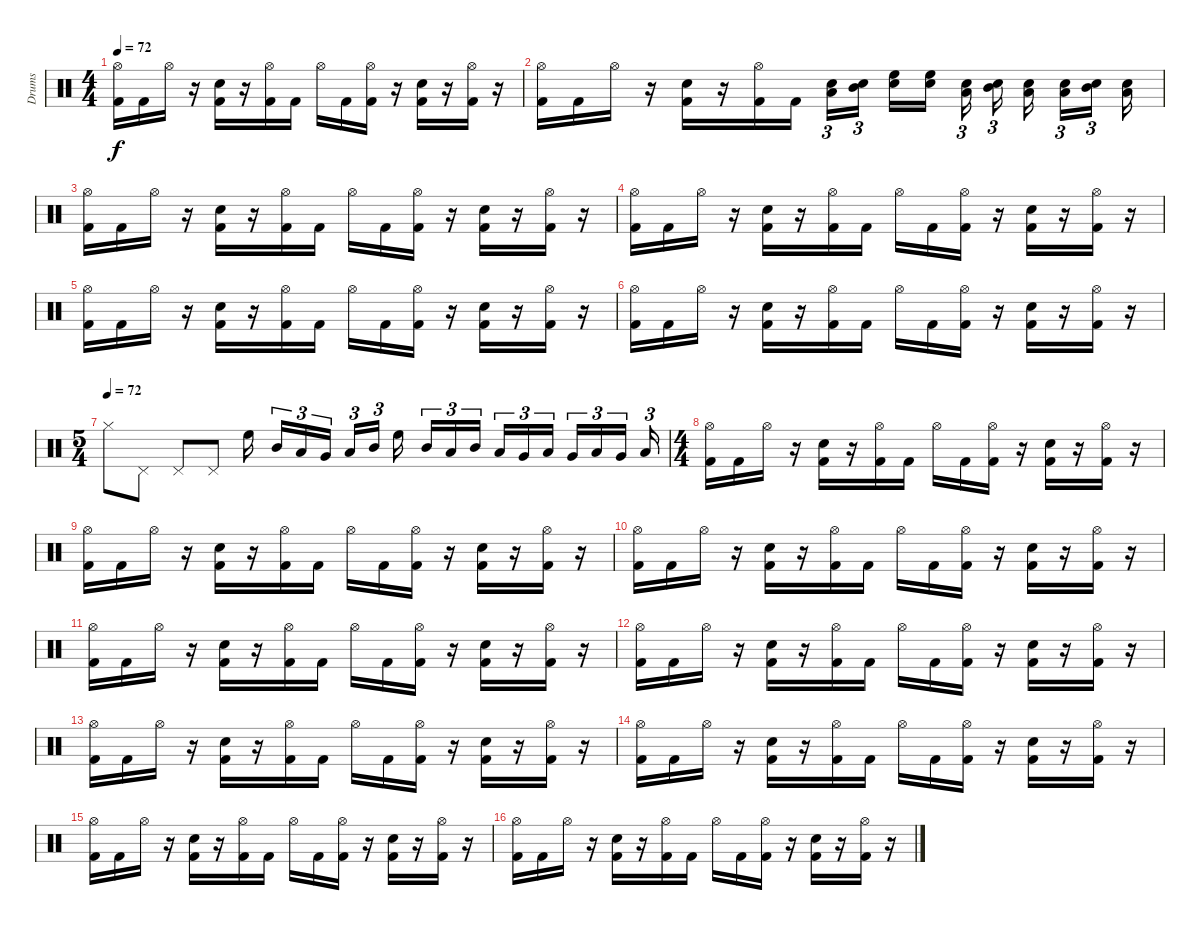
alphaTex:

\track ("Drums" "Drums") {instrument percussion}
\staff {score}
\articulation defaults
\ts (4 4)
\tempo 72
\clef neutral
\ks c
("Hi-Hat (open)" "Kick (hit) 2").16{dy f} "Kick (hit) 2".16 "Hi-Hat (open)".16 r.16 ("Snare (hit) 2" "Kick (hit) 2").16 r.16 ("Hi-Hat (open)" "Kick (hit) 2").16 "Kick (hit) 2".16 "Hi-Hat (open)".16 "Kick (hit) 2".16 ("Hi-Hat (open)" "Kick (hit) 2").16 r.16 ("Snare (hit) 2" "Kick (hit) 2").16 r.16 ("Hi-Hat (open)" "Kick (hit) 2").16 r.16 |
("Hi-Hat (open)" "Kick (hit) 2").16 "Kick (hit) 2".16 "Hi-Hat (open)".16 r.16 ("Snare (hit) 2" "Kick (hit) 2").16 r.16 ("Hi-Hat (open)" "Kick (hit) 2").16 "Kick (hit) 2".16 ("Snare (hit) 2" "Low Tom (hit)").16{tu (3 2)} ("Snare (hit) 2" "Mid Tom (hit)").16{tu (3 2) beam splitsecondary} ("Snare (hit) 2" "High Floor Tom (hit)").16 ("Snare (hit) 2" "High Floor Tom (hit)").16{beam splitsecondary} ("Snare (hit) 2" "Low Tom (hit)").16{tu (3 2)} ("Snare (hit) 2" "Mid Tom (hit)").16{tu (3 2) beam splitsecondary} ("Snare (hit) 2" "Low Tom (hit)").16{beam splitsecondary} ("Snare (hit) 2" "Low Tom (hit)").16{tu (3 2)} ("Snare (hit) 2" "Mid Tom (hit)").16{tu (3 2) beam splitsecondary} ("Snare (hit) 2" "Low Tom (hit)").16 |
("Hi-Hat (open)" "Kick (hit) 2").16 "Kick (hit) 2".16 "Hi-Hat (open)".16 r.16 ("Snare (hit) 2" "Kick (hit) 2").16 r.16 ("Hi-Hat (open)" "Kick (hit) 2").16 "Kick (hit) 2".16 "Hi-Hat (open)".16 "Kick (hit) 2".16 ("Hi-Hat (open)" "Kick (hit) 2").16 r.16 ("Snare (hit) 2" "Kick (hit) 2").16 r.16 ("Hi-Hat (open)" "Kick (hit) 2").16 r.16 |
("Hi-Hat (open)" "Kick (hit) 2").16 "Kick (hit) 2".16 "Hi-Hat (open)".16 r.16 ("Snare (hit) 2" "Kick (hit) 2").16 r.16 ("Hi-Hat (open)" "Kick (hit) 2").16 "Kick (hit) 2".16 "Hi-Hat (open)".16 "Kick (hit) 2".16 ("Hi-Hat (open)" "Kick (hit) 2").16 r.16 ("Snare (hit) 2" "Kick (hit) 2").16 r.16 ("Hi-Hat (open)" "Kick (hit) 2").16 r.16 |
("Hi-Hat (open)" "Kick (hit) 2").16 "Kick (hit) 2".16 "Hi-Hat (open)".16 r.16 ("Snare (hit) 2" "Kick (hit) 2").16 r.16 ("Hi-Hat (open)" "Kick (hit) 2").16 "Kick (hit) 2".16 "Hi-Hat (open)".16 "Kick (hit) 2".16 ("Hi-Hat (open)" "Kick (hit) 2").16 r.16 ("Snare (hit) 2" "Kick (hit) 2").16 r.16 ("Hi-Hat (open)" "Kick (hit) 2").16 r.16 |
("Hi-Hat (open)" "Kick (hit) 2").16 "Kick (hit) 2".16 "Hi-Hat (open)".16 r.16 ("Snare (hit) 2" "Kick (hit) 2").16 r.16 ("Hi-Hat (open)" "Kick (hit) 2").16 "Kick (hit) 2".16 "Hi-Hat (open)".16 "Kick (hit) 2".16 ("Hi-Hat (open)" "Kick (hit) 2").16 r.16 ("Snare (hit) 2" "Kick (hit) 2").16 r.16 ("Hi-Hat (open)" "Kick (hit) 2").16 r.16 |
\ts (5 4)
\tempo (72)
"Hi-Hat (closed)".8 "Pedal Hi-Hat (hit)".8 "Pedal Hi-Hat (hit)".8 "Pedal Hi-Hat (hit)".8 "High Floor Tom (hit)".16{beam splitsecondary} "Mid Tom (hit)".16{tu (3 2)} "Low Tom (hit)".16{tu (3 2)} "Very Low Tom (hit)".16{tu (3 2) beam splitsecondary} "Low Tom (hit)".16{tu (3 2)} "Mid Tom (hit)".16{tu (3 2)} "High Floor Tom (hit)".16{beam splitsecondary} "Mid Tom (hit)".16{tu (3 2)} "Low Tom (hit)".16{tu (3 2)} "Mid Tom (hit)".16{tu (3 2) beam splitsecondary} "Low Tom (hit)".16{tu (3 2)} "Very Low Tom (hit)".16{tu (3 2)} "Low Tom (hit)".16{tu (3 2) beam splitsecondary} "Very Low Tom (hit)".16{tu (3 2)} "Low Floor Tom (hit)".16{tu (3 2)} "Very Low Tom (hit)".16{tu (3 2) beam splitsecondary} "Low Floor Tom (hit)".16{tu (3 2)} |
\ts (4 4)
("Hi-Hat (open)" "Kick (hit) 2").16 "Kick (hit) 2".16 "Hi-Hat (open)".16 r.16 ("Snare (hit) 2" "Kick (hit) 2").16 r.16 ("Hi-Hat (open)" "Kick (hit) 2").16 "Kick (hit) 2".16 "Hi-Hat (open)".16 "Kick (hit) 2".16 ("Hi-Hat (open)" "Kick (hit) 2").16 r.16 ("Snare (hit) 2" "Kick (hit) 2").16 r.16 ("Hi-Hat (open)" "Kick (hit) 2").16 r.16 |
("Hi-Hat (open)" "Kick (hit) 2").16 "Kick (hit) 2".16 "Hi-Hat (open)".16 r.16 ("Snare (hit) 2" "Kick (hit) 2").16 r.16 ("Hi-Hat (open)" "Kick (hit) 2").16 "Kick (hit) 2".16 "Hi-Hat (open)".16 "Kick (hit) 2".16 ("Hi-Hat (open)" "Kick (hit) 2").16 r.16 ("Snare (hit) 2" "Kick (hit) 2").16 r.16 ("Hi-Hat (open)" "Kick (hit) 2").16 r.16 |
("Hi-Hat (open)" "Kick (hit) 2").16 "Kick (hit) 2".16 "Hi-Hat (open)".16 r.16 ("Snare (hit) 2" "Kick (hit) 2").16 r.16 ("Hi-Hat (open)" "Kick (hit) 2").16 "Kick (hit) 2".16 "Hi-Hat (open)".16 "Kick (hit) 2".16 ("Hi-Hat (open)" "Kick (hit) 2").16 r.16 ("Snare (hit) 2" "Kick (hit) 2").16 r.16 ("Hi-Hat (open)" "Kick (hit) 2").16 r.16 |
("Hi-Hat (open)" "Kick (hit) 2").16 "Kick (hit) 2".16 "Hi-Hat (open)".16 r.16 ("Snare (hit) 2" "Kick (hit) 2").16 r.16 ("Hi-Hat (open)" "Kick (hit) 2").16 "Kick (hit) 2".16 "Hi-Hat (open)".16 "Kick (hit) 2".16 ("Hi-Hat (open)" "Kick (hit) 2").16 r.16 ("Snare (hit) 2" "Kick (hit) 2").16 r.16 ("Hi-Hat (open)" "Kick (hit) 2").16 r.16 |
("Hi-Hat (open)" "Kick (hit) 2").16 "Kick (hit) 2".16 "Hi-Hat (open)".16 r.16 ("Snare (hit) 2" "Kick (hit) 2").16 r.16 ("Hi-Hat (open)" "Kick (hit) 2").16 "Kick (hit) 2".16 "Hi-Hat (open)".16 "Kick (hit) 2".16 ("Hi-Hat (open)" "Kick (hit) 2").16 r.16 ("Snare (hit) 2" "Kick (hit) 2").16 r.16 ("Hi-Hat (open)" "Kick (hit) 2").16 r.16 |
("Hi-Hat (open)" "Kick (hit) 2").16 "Kick (hit) 2".16 "Hi-Hat (open)".16 r.16 ("Snare (hit) 2" "Kick (hit) 2").16 r.16 ("Hi-Hat (open)" "Kick (hit) 2").16 "Kick (hit) 2".16 "Hi-Hat (open)".16 "Kick (hit) 2".16 ("Hi-Hat (open)" "Kick (hit) 2").16 r.16 ("Snare (hit) 2" "Kick (hit) 2").16 r.16 ("Hi-Hat (open)" "Kick (hit) 2").16 r.16 |
("Hi-Hat (open)" "Kick (hit) 2").16 "Kick (hit) 2".16 "Hi-Hat (open)".16 r.16 ("Snare (hit) 2" "Kick (hit) 2").16 r.16 ("Hi-Hat (open)" "Kick (hit) 2").16 "Kick (hit) 2".16 "Hi-Hat (open)".16 "Kick (hit) 2".16 ("Hi-Hat (open)" "Kick (hit) 2").16 r.16 ("Snare (hit) 2" "Kick (hit) 2").16 r.16 ("Hi-Hat (open)" "Kick (hit) 2").16 r.16 |
("Hi-Hat (open)" "Kick (hit) 2").16 "Kick (hit) 2".16 "Hi-Hat (open)".16 r.16 ("Snare (hit) 2" "Kick (hit) 2").16 r.16 ("Hi-Hat (open)" "Kick (hit) 2").16 "Kick (hit) 2".16 "Hi-Hat (open)".16 "Kick (hit) 2".16 ("Hi-Hat (open)" "Kick (hit) 2").16 r.16 ("Snare (hit) 2" "Kick (hit) 2").16 r.16 ("Hi-Hat (open)" "Kick (hit) 2").16 r.16 |
("Hi-Hat (open)" "Kick (hit) 2").16 "Kick (hit) 2".16 "Hi-Hat (open)".16 r.16 ("Snare (hit) 2" "Kick (hit) 2").16 r.16 ("Hi-Hat (open)" "Kick (hit) 2").16 "Kick (hit) 2".16 "Hi-Hat (open)".16 "Kick (hit) 2".16 ("Hi-Hat (open)" "Kick (hit) 2").16 r.16 ("Snare (hit) 2" "Kick (hit) 2").16 r.16 ("Hi-Hat (open)" "Kick (hit) 2").16 r.16
